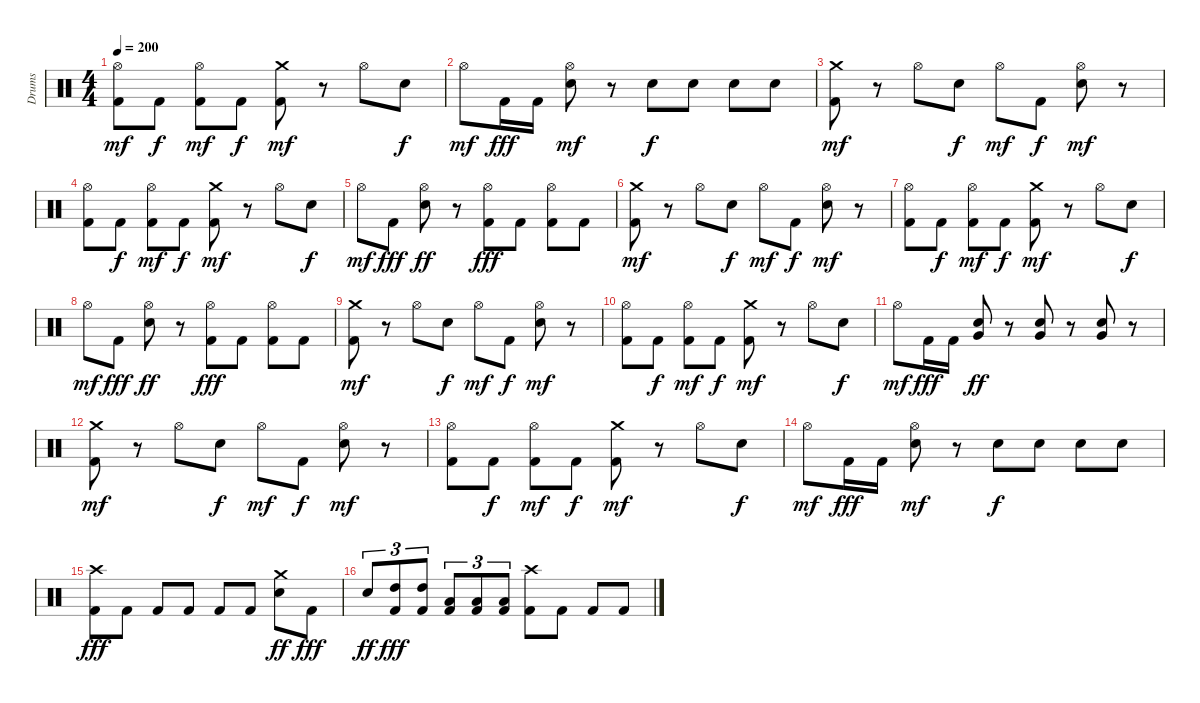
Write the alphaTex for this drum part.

\track ("Drums" "Drums") {instrument percussion}
\staff {score}
\articulation defaults
\ts (4 4)
\tempo 200
\clef neutral
\ks c
("Hi-Hat (open)" "Kick (hit) 2").8{dy mf} "Kick (hit) 2".8{dy f} ("Hi-Hat (open)" "Kick (hit) 2").8{dy mf} "Kick (hit) 2".8{dy f} ("Crash medium (hit)" "Kick (hit) 2").8{dy mf} r.8 "Hi-Hat (open)".8 "Electric Snare (hit)".8{dy f} |
"Hi-Hat (open)".8{dy mf} "Kick (hit) 2".16{dy fff} "Kick (hit) 2".16 ("Hi-Hat (open)" "Electric Snare (hit)").8{dy mf} r.8 "Electric Snare (hit)".8{dy f} "Electric Snare (hit)".8 "Electric Snare (hit)".8 "Electric Snare (hit)".8 |
("Crash medium (hit)" "Kick (hit) 2").8{dy mf} r.8 "Hi-Hat (open)".8 "Electric Snare (hit)".8{dy f} "Hi-Hat (open)".8{dy mf} "Kick (hit) 2".8{dy f} ("Hi-Hat (open)" "Electric Snare (hit)").8{dy mf} r.8 |
("Hi-Hat (open)" "Kick (hit) 2").8 "Kick (hit) 2".8{dy f} ("Hi-Hat (open)" "Kick (hit) 2").8{dy mf} "Kick (hit) 2".8{dy f} ("Crash medium (hit)" "Kick (hit) 2").8{dy mf} r.8 "Hi-Hat (open)".8 "Electric Snare (hit)".8{dy f} |
"Hi-Hat (open)".8{dy mf} "Kick (hit) 2".8{dy fff} ("Hi-Hat (open)" "Electric Snare (hit)").8{dy ff} r.8 ("Hi-Hat (open)" "Kick (hit) 2").8{dy fff} "Kick (hit) 2".8 ("Hi-Hat (open)" "Kick (hit) 2").8 "Kick (hit) 2".8 |
("Crash medium (hit)" "Kick (hit) 2").8{dy mf} r.8 "Hi-Hat (open)".8 "Electric Snare (hit)".8{dy f} "Hi-Hat (open)".8{dy mf} "Kick (hit) 2".8{dy f} ("Hi-Hat (open)" "Electric Snare (hit)").8{dy mf} r.8 |
("Hi-Hat (open)" "Kick (hit) 2").8 "Kick (hit) 2".8{dy f} ("Hi-Hat (open)" "Kick (hit) 2").8{dy mf} "Kick (hit) 2".8{dy f} ("Crash medium (hit)" "Kick (hit) 2").8{dy mf} r.8 "Hi-Hat (open)".8 "Electric Snare (hit)".8{dy f} |
"Hi-Hat (open)".8{dy mf} "Kick (hit) 2".8{dy fff} ("Hi-Hat (open)" "Electric Snare (hit)").8{dy ff} r.8 ("Hi-Hat (open)" "Kick (hit) 2").8{dy fff} "Kick (hit) 2".8 ("Hi-Hat (open)" "Kick (hit) 2").8 "Kick (hit) 2".8 |
("Crash medium (hit)" "Kick (hit) 2").8{dy mf} r.8 "Hi-Hat (open)".8 "Electric Snare (hit)".8{dy f} "Hi-Hat (open)".8{dy mf} "Kick (hit) 2".8{dy f} ("Hi-Hat (open)" "Electric Snare (hit)").8{dy mf} r.8 |
("Hi-Hat (open)" "Kick (hit) 2").8 "Kick (hit) 2".8{dy f} ("Hi-Hat (open)" "Kick (hit) 2").8{dy mf} "Kick (hit) 2".8{dy f} ("Crash medium (hit)" "Kick (hit) 2").8{dy mf} r.8 "Hi-Hat (open)".8 "Electric Snare (hit)".8{dy f} |
"Hi-Hat (open)".8{dy mf} "Kick (hit) 2".16{dy fff} "Kick (hit) 2".16 ("Very Low Tom (hit)" "Electric Snare (hit)").8{dy ff} r.8 ("Very Low Tom (hit)" "Electric Snare (hit)").8 r.8 ("Very Low Tom (hit)" "Electric Snare (hit)").8 r.8 |
("Crash medium (hit)" "Kick (hit) 2").8{dy mf} r.8 "Hi-Hat (open)".8 "Electric Snare (hit)".8{dy f} "Hi-Hat (open)".8{dy mf} "Kick (hit) 2".8{dy f} ("Hi-Hat (open)" "Electric Snare (hit)").8{dy mf} r.8 |
("Hi-Hat (open)" "Kick (hit) 2").8 "Kick (hit) 2".8{dy f} ("Hi-Hat (open)" "Kick (hit) 2").8{dy mf} "Kick (hit) 2".8{dy f} ("Crash medium (hit)" "Kick (hit) 2").8{dy mf} r.8 "Hi-Hat (open)".8 "Electric Snare (hit)".8{dy f} |
"Hi-Hat (open)".8{dy mf} "Kick (hit) 2".16{dy fff} "Kick (hit) 2".16 ("Hi-Hat (open)" "Electric Snare (hit)").8{dy mf} r.8 "Electric Snare (hit)".8{dy f} "Electric Snare (hit)".8 "Electric Snare (hit)".8 "Electric Snare (hit)".8 |
("Crash high (hit)" "Kick (hit) 2").8{dy fff} "Kick (hit) 2".8 "Kick (hit) 2".8 "Kick (hit) 2".8 "Kick (hit) 2".8 "Kick (hit) 2".8 ("Crash medium (hit)" "Electric Snare (hit)").8{dy ff} "Kick (hit) 2".8{dy fff} |
"Electric Snare (hit)".8{tu (3 2) dy ff} ("High Tom (hit)" "Kick (hit) 2").8{tu (3 2) dy fff} ("High Tom (hit)" "Kick (hit) 2").8{tu (3 2)} ("Low Tom (hit)" "Kick (hit) 2").8{tu (3 2)} ("Low Tom (hit)" "Kick (hit) 2").8{tu (3 2)} ("Low Tom (hit)" "Kick (hit) 2").8{tu (3 2)} ("Crash high (hit)" "Kick (hit) 2").8 "Kick (hit) 2".8 "Kick (hit) 2".8 "Kick (hit) 2".8
